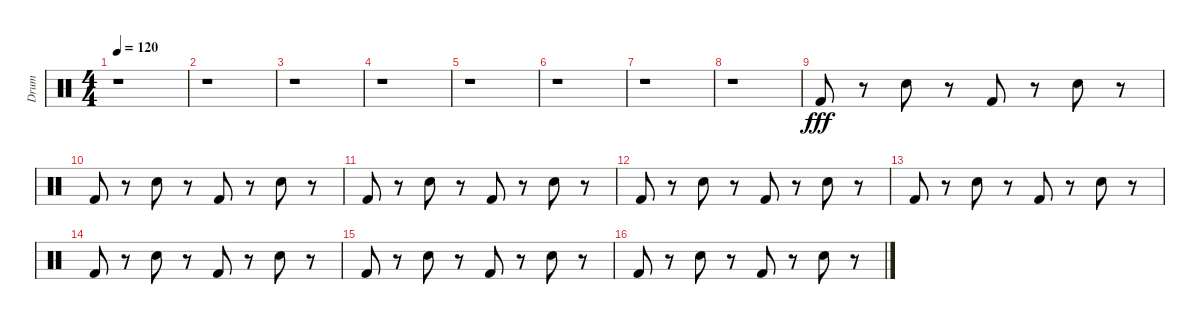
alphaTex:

\track ("Drum" "Drum") {instrument percussion}
\staff {score}
\articulation defaults
\ts (4 4)
\tempo 120
\clef neutral
\ks c
r.1{dy fff} |
r.1 |
r.1 |
r.1 |
r.1 |
r.1 |
r.1 |
r.1 |
"Kick (hit) 2".8 r.8 "Snare (hit) 2".8 r.8 "Kick (hit) 2".8 r.8 "Snare (hit) 2".8 r.8 |
"Kick (hit) 2".8 r.8 "Snare (hit) 2".8 r.8 "Kick (hit) 2".8 r.8 "Snare (hit) 2".8 r.8 |
"Kick (hit) 2".8 r.8 "Snare (hit) 2".8 r.8 "Kick (hit) 2".8 r.8 "Snare (hit) 2".8 r.8 |
"Kick (hit) 2".8 r.8 "Snare (hit) 2".8 r.8 "Kick (hit) 2".8 r.8 "Snare (hit) 2".8 r.8 |
"Kick (hit) 2".8 r.8 "Snare (hit) 2".8 r.8 "Kick (hit) 2".8 r.8 "Snare (hit) 2".8 r.8 |
"Kick (hit) 2".8 r.8 "Snare (hit) 2".8 r.8 "Kick (hit) 2".8 r.8 "Snare (hit) 2".8 r.8 |
"Kick (hit) 2".8 r.8 "Snare (hit) 2".8 r.8 "Kick (hit) 2".8 r.8 "Snare (hit) 2".8 r.8 |
"Kick (hit) 2".8 r.8 "Snare (hit) 2".8 r.8 "Kick (hit) 2".8 r.8 "Snare (hit) 2".8 r.8
